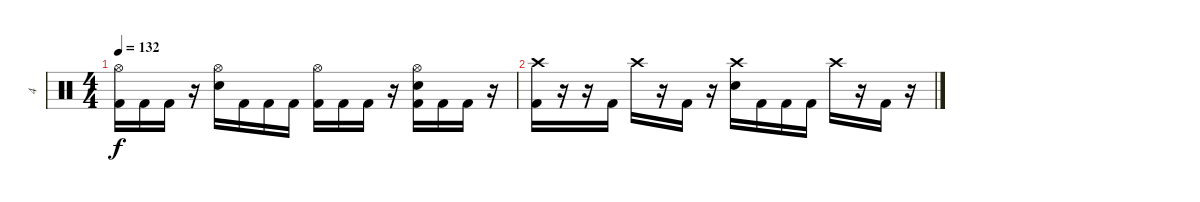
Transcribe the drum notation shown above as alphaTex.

\track ("4" "4") {instrument percussion}
\staff {score}
\articulation defaults
\ts (4 4)
\tempo 132
\clef neutral
\ks c
("Hi-Hat (open)" "Kick (hit) 2").16{dy f} "Kick (hit) 2".16 "Kick (hit) 2".16 r.16 ("Hi-Hat (open)" "Snare (hit) 2").16 "Kick (hit) 2".16 "Kick (hit) 2".16 "Kick (hit) 2".16 ("Hi-Hat (open)" "Kick (hit) 2").16 "Kick (hit) 2".16 "Kick (hit) 2".16 r.16 ("Hi-Hat (open)" "Snare (hit) 2" "Kick (hit) 2").16 "Kick (hit) 2".16 "Kick (hit) 2".16 r.16 |
("Crash high (hit)" "Kick (hit) 2").16 r.16 r.16 "Kick (hit) 2".16 "Crash high (hit)".16 r.16 "Kick (hit) 2".16 r.16 ("Crash high (hit)" "Snare (hit) 2").16 "Kick (hit) 2".16 "Kick (hit) 2".16 "Kick (hit) 2".16 "Crash high (hit)".16 r.16 "Kick (hit) 2".16 r.16
